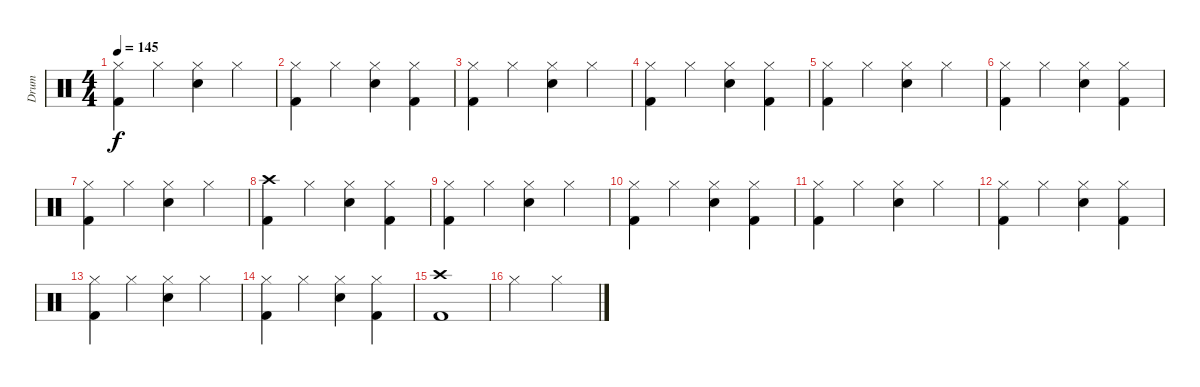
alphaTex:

\track ("Drum" "Drum") {instrument percussion}
\staff {score}
\articulation defaults
\ts (4 4)
\tempo 145
\clef neutral
\ks c
("Hi-Hat (closed)" "Kick (hit) 2").4{dy f} "Hi-Hat (closed)".4 ("Hi-Hat (closed)" "Snare (hit) 2").4 "Hi-Hat (closed)".4 |
("Hi-Hat (closed)" "Kick (hit) 2").4 "Hi-Hat (closed)".4 ("Hi-Hat (closed)" "Snare (hit) 2").4 ("Hi-Hat (closed)" "Kick (hit) 2").4 |
("Hi-Hat (closed)" "Kick (hit) 2").4 "Hi-Hat (closed)".4 ("Hi-Hat (closed)" "Snare (hit) 2").4 "Hi-Hat (closed)".4 |
("Hi-Hat (closed)" "Kick (hit) 2").4 "Hi-Hat (closed)".4 ("Hi-Hat (closed)" "Snare (hit) 2").4 ("Hi-Hat (closed)" "Kick (hit) 2").4 |
("Hi-Hat (closed)" "Kick (hit) 2").4 "Hi-Hat (closed)".4 ("Hi-Hat (closed)" "Snare (hit) 2").4 "Hi-Hat (closed)".4 |
("Hi-Hat (closed)" "Kick (hit) 2").4 "Hi-Hat (closed)".4 ("Hi-Hat (closed)" "Snare (hit) 2").4 ("Hi-Hat (closed)" "Kick (hit) 2").4 |
("Hi-Hat (closed)" "Kick (hit) 2").4 "Hi-Hat (closed)".4 ("Hi-Hat (closed)" "Snare (hit) 2").4 "Hi-Hat (closed)".4 |
("Crash high (hit)" "Kick (hit) 2").4 "Hi-Hat (closed)".4 ("Hi-Hat (closed)" "Snare (hit) 2").4 ("Hi-Hat (closed)" "Kick (hit) 2").4 |
("Hi-Hat (closed)" "Kick (hit) 2").4 "Hi-Hat (closed)".4 ("Hi-Hat (closed)" "Snare (hit) 2").4 "Hi-Hat (closed)".4 |
("Hi-Hat (closed)" "Kick (hit) 2").4 "Hi-Hat (closed)".4 ("Hi-Hat (closed)" "Snare (hit) 2").4 ("Hi-Hat (closed)" "Kick (hit) 2").4 |
("Hi-Hat (closed)" "Kick (hit) 2").4 "Hi-Hat (closed)".4 ("Hi-Hat (closed)" "Snare (hit) 2").4 "Hi-Hat (closed)".4 |
("Hi-Hat (closed)" "Kick (hit) 2").4 "Hi-Hat (closed)".4 ("Hi-Hat (closed)" "Snare (hit) 2").4 ("Hi-Hat (closed)" "Kick (hit) 2").4 |
("Hi-Hat (closed)" "Kick (hit) 2").4 "Hi-Hat (closed)".4 ("Hi-Hat (closed)" "Snare (hit) 2").4 "Hi-Hat (closed)".4 |
("Hi-Hat (closed)" "Kick (hit) 2").4 "Hi-Hat (closed)".4 ("Hi-Hat (closed)" "Snare (hit) 2").4 ("Hi-Hat (closed)" "Kick (hit) 2").4 |
("Crash high (hit)" "Kick (hit) 2").1 |
"Hi-Hat (closed)".2 "Hi-Hat (closed)".2
